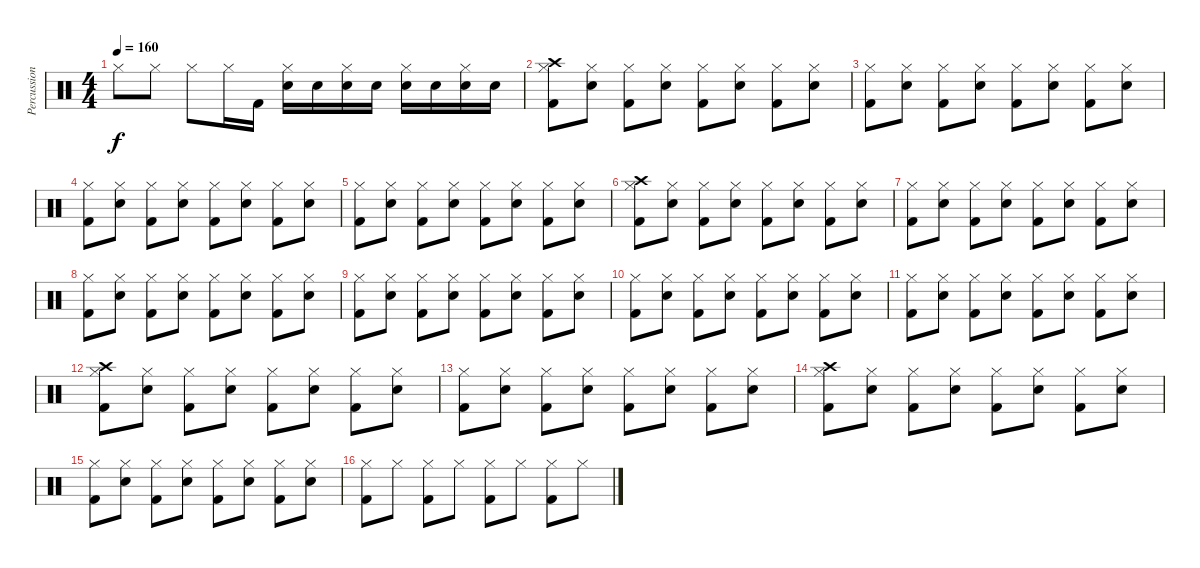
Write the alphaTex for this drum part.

\track ("Percussion" "Percussion") {instrument percussion}
\staff {score}
\articulation defaults
\ts (4 4)
\tempo 160
\clef neutral
\ks c "Hi-Hat (closed)".8{dy f} "Hi-Hat (closed)".8 "Hi-Hat (closed)".8 "Hi-Hat (closed)".16 "Kick (hit) 2".16
("Hi-Hat (closed)" "Electric Snare (hit)").16 "Electric Snare (hit)".16 ("Hi-Hat (closed)" "Electric Snare (hit)").16 "Electric Snare (hit)".16 ("Hi-Hat (closed)" "Electric Snare (hit)").16 "Electric Snare (hit)".16 ("Hi-Hat (closed)" "Electric Snare (hit)").16 "Electric Snare (hit)".16 |
("Hi-Hat (closed)" "Crash high (hit)" "Kick (hit) 2").8 ("Hi-Hat (closed)" "Electric Snare (hit)").8 ("Hi-Hat (closed)" "Kick (hit) 2").8 ("Hi-Hat (closed)" "Electric Snare (hit)").8 ("Hi-Hat (closed)" "Kick (hit) 2").8 ("Hi-Hat (closed)" "Electric Snare (hit)").8 ("Hi-Hat (closed)" "Kick (hit) 2").8 ("Hi-Hat (closed)" "Electric Snare (hit)").8 |
("Hi-Hat (closed)" "Kick (hit) 2").8 ("Hi-Hat (closed)" "Electric Snare (hit)").8 ("Hi-Hat (closed)" "Kick (hit) 2").8 ("Hi-Hat (closed)" "Electric Snare (hit)").8 ("Hi-Hat (closed)" "Kick (hit) 2").8 ("Hi-Hat (closed)" "Electric Snare (hit)").8 ("Hi-Hat (closed)" "Kick (hit) 2").8 ("Hi-Hat (closed)" "Electric Snare (hit)").8 |
("Hi-Hat (closed)" "Kick (hit) 2").8 ("Hi-Hat (closed)" "Electric Snare (hit)").8 ("Hi-Hat (closed)" "Kick (hit) 2").8 ("Hi-Hat (closed)" "Electric Snare (hit)").8 ("Hi-Hat (closed)" "Kick (hit) 2").8 ("Hi-Hat (closed)" "Electric Snare (hit)").8 ("Hi-Hat (closed)" "Kick (hit) 2").8 ("Hi-Hat (closed)" "Electric Snare (hit)").8 |
("Hi-Hat (closed)" "Kick (hit) 2").8 ("Hi-Hat (closed)" "Electric Snare (hit)").8 ("Hi-Hat (closed)" "Kick (hit) 2").8 ("Hi-Hat (closed)" "Electric Snare (hit)").8 ("Hi-Hat (closed)" "Kick (hit) 2").8 ("Hi-Hat (closed)" "Electric Snare (hit)").8 ("Hi-Hat (closed)" "Kick (hit) 2").8 ("Hi-Hat (closed)" "Electric Snare (hit)").8 |
("Hi-Hat (closed)" "Crash high (hit)" "Kick (hit) 2").8 ("Hi-Hat (closed)" "Electric Snare (hit)").8 ("Hi-Hat (closed)" "Kick (hit) 2").8 ("Hi-Hat (closed)" "Electric Snare (hit)").8 ("Hi-Hat (closed)" "Kick (hit) 2").8 ("Hi-Hat (closed)" "Electric Snare (hit)").8 ("Hi-Hat (closed)" "Kick (hit) 2").8 ("Hi-Hat (closed)" "Electric Snare (hit)").8 |
("Hi-Hat (closed)" "Kick (hit) 2").8 ("Hi-Hat (closed)" "Electric Snare (hit)").8 ("Hi-Hat (closed)" "Kick (hit) 2").8 ("Hi-Hat (closed)" "Electric Snare (hit)").8 ("Hi-Hat (closed)" "Kick (hit) 2").8 ("Hi-Hat (closed)" "Electric Snare (hit)").8 ("Hi-Hat (closed)" "Kick (hit) 2").8 ("Hi-Hat (closed)" "Electric Snare (hit)").8 |
("Hi-Hat (closed)" "Kick (hit) 2").8 ("Hi-Hat (closed)" "Electric Snare (hit)").8 ("Hi-Hat (closed)" "Kick (hit) 2").8 ("Hi-Hat (closed)" "Electric Snare (hit)").8 ("Hi-Hat (closed)" "Kick (hit) 2").8 ("Hi-Hat (closed)" "Electric Snare (hit)").8 ("Hi-Hat (closed)" "Kick (hit) 2").8 ("Hi-Hat (closed)" "Electric Snare (hit)").8 |
("Hi-Hat (closed)" "Kick (hit) 2").8 ("Hi-Hat (closed)" "Electric Snare (hit)").8 ("Hi-Hat (closed)" "Kick (hit) 2").8 ("Hi-Hat (closed)" "Electric Snare (hit)").8 ("Hi-Hat (closed)" "Kick (hit) 2").8 ("Hi-Hat (closed)" "Electric Snare (hit)").8 ("Hi-Hat (closed)" "Kick (hit) 2").8 ("Hi-Hat (closed)" "Electric Snare (hit)").8 |
("Hi-Hat (closed)" "Kick (hit) 2").8 ("Hi-Hat (closed)" "Electric Snare (hit)").8 ("Hi-Hat (closed)" "Kick (hit) 2").8 ("Hi-Hat (closed)" "Electric Snare (hit)").8 ("Hi-Hat (closed)" "Kick (hit) 2").8 ("Hi-Hat (closed)" "Electric Snare (hit)").8 ("Hi-Hat (closed)" "Kick (hit) 2").8 ("Hi-Hat (closed)" "Electric Snare (hit)").8 |
("Hi-Hat (closed)" "Kick (hit) 2").8 ("Hi-Hat (closed)" "Electric Snare (hit)").8 ("Hi-Hat (closed)" "Kick (hit) 2").8 ("Hi-Hat (closed)" "Electric Snare (hit)").8 ("Hi-Hat (closed)" "Kick (hit) 2").8 ("Hi-Hat (closed)" "Electric Snare (hit)").8 ("Hi-Hat (closed)" "Kick (hit) 2").8 ("Hi-Hat (closed)" "Electric Snare (hit)").8 |
("Hi-Hat (closed)" "Crash high (hit)" "Kick (hit) 2").8 ("Hi-Hat (closed)" "Electric Snare (hit)").8 ("Hi-Hat (closed)" "Kick (hit) 2").8 ("Hi-Hat (closed)" "Electric Snare (hit)").8 ("Hi-Hat (closed)" "Kick (hit) 2").8 ("Hi-Hat (closed)" "Electric Snare (hit)").8 ("Hi-Hat (closed)" "Kick (hit) 2").8 ("Hi-Hat (closed)" "Electric Snare (hit)").8 |
("Hi-Hat (closed)" "Kick (hit) 2").8 ("Hi-Hat (closed)" "Electric Snare (hit)").8 ("Hi-Hat (closed)" "Kick (hit) 2").8 ("Hi-Hat (closed)" "Electric Snare (hit)").8 ("Hi-Hat (closed)" "Kick (hit) 2").8 ("Hi-Hat (closed)" "Electric Snare (hit)").8 ("Hi-Hat (closed)" "Kick (hit) 2").8 ("Hi-Hat (closed)" "Electric Snare (hit)").8 |
("Hi-Hat (closed)" "Crash high (hit)" "Kick (hit) 2").8 ("Hi-Hat (closed)" "Electric Snare (hit)").8 ("Hi-Hat (closed)" "Kick (hit) 2").8 ("Hi-Hat (closed)" "Electric Snare (hit)").8 ("Hi-Hat (closed)" "Kick (hit) 2").8 ("Hi-Hat (closed)" "Electric Snare (hit)").8 ("Hi-Hat (closed)" "Kick (hit) 2").8 ("Hi-Hat (closed)" "Electric Snare (hit)").8 |
("Hi-Hat (closed)" "Kick (hit) 2").8 ("Hi-Hat (closed)" "Electric Snare (hit)").8 ("Hi-Hat (closed)" "Kick (hit) 2").8 ("Hi-Hat (closed)" "Electric Snare (hit)").8 ("Hi-Hat (closed)" "Kick (hit) 2").8 ("Hi-Hat (closed)" "Electric Snare (hit)").8 ("Hi-Hat (closed)" "Kick (hit) 2").8 ("Hi-Hat (closed)" "Electric Snare (hit)").8 |
("Hi-Hat (closed)" "Kick (hit) 2").8 "Hi-Hat (closed)".8 ("Hi-Hat (closed)" "Kick (hit) 2").8 "Hi-Hat (closed)".8 ("Hi-Hat (closed)" "Kick (hit) 2").8 "Hi-Hat (closed)".8 ("Hi-Hat (closed)" "Kick (hit) 2").8 "Hi-Hat (closed)".8
